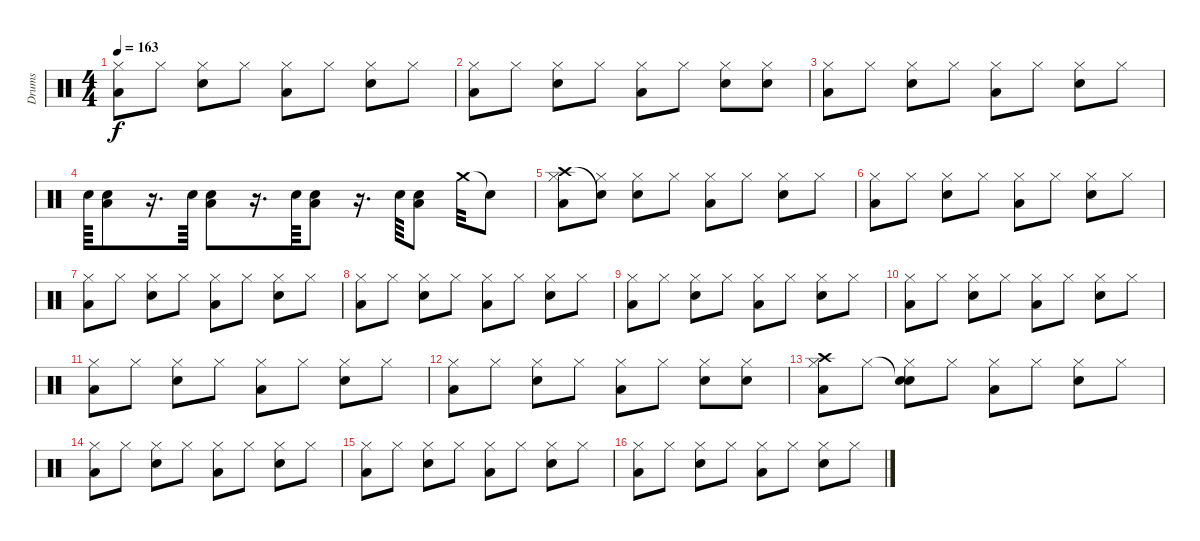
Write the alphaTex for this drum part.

\track ("Drums" "Drums") {instrument percussion}
\staff {score}
\articulation defaults
\ts (4 4)
\tempo 163
\clef neutral
\ks c
("Low Tom (hit)" "Hi-Hat (closed)").8{dy f} "Hi-Hat (closed)".8 ("Snare (hit) 2" "Hi-Hat (closed)").8 "Hi-Hat (closed)".8 ("Low Tom (hit)" "Hi-Hat (closed)").8 "Hi-Hat (closed)".8 ("Snare (hit) 2" "Hi-Hat (closed)").8 "Hi-Hat (closed)".8 |
("Low Tom (hit)" "Hi-Hat (closed)").8 "Hi-Hat (closed)".8 ("Snare (hit) 2" "Hi-Hat (closed)").8 "Hi-Hat (closed)".8 ("Low Tom (hit)" "Hi-Hat (closed)").8 "Hi-Hat (closed)".8 ("Snare (hit) 2" "Hi-Hat (closed)").8 ("Snare (hit) 2" "Hi-Hat (closed)").8 |
("Low Tom (hit)" "Hi-Hat (closed)").8 "Hi-Hat (closed)".8 ("Snare (hit) 2" "Hi-Hat (closed)").8 "Hi-Hat (closed)".8 ("Low Tom (hit)" "Hi-Hat (closed)").8 "Hi-Hat (closed)".8 ("Snare (hit) 2" "Hi-Hat (closed)").8 "Hi-Hat (closed)".8 |
"Snare (hit) 2".64 ("Snare (hit) 2" "Low Tom (hit)").8 r.16{d} "Snare (hit) 2".64 ("Snare (hit) 2" "Low Tom (hit)").8 r.16{d} "Snare (hit) 2".64 ("Snare (hit) 2" "Low Tom (hit)").8 r.16{d} "Snare (hit) 2".64 ("Snare (hit) 2" "Low Tom (hit)").8 "Crash medium (hit)".32 "Snare (hit)"{t}.8 |
("Crash high (hit)" "Low Tom (hit)" "Hi-Hat (closed)").8 ("Snare (hit)"{t} "Hi-Hat (closed)").8 ("Snare (hit) 2" "Hi-Hat (closed)").8 "Hi-Hat (closed)".8 ("Low Tom (hit)" "Hi-Hat (closed)").8 "Hi-Hat (closed)".8 ("Snare (hit) 2" "Hi-Hat (closed)").8 "Hi-Hat (closed)".8 |
("Low Tom (hit)" "Hi-Hat (closed)").8 "Hi-Hat (closed)".8 ("Snare (hit) 2" "Hi-Hat (closed)").8 "Hi-Hat (closed)".8 ("Low Tom (hit)" "Hi-Hat (closed)").8 "Hi-Hat (closed)".8 ("Snare (hit) 2" "Hi-Hat (closed)").8 "Hi-Hat (closed)".8 |
("Low Tom (hit)" "Hi-Hat (closed)").8 "Hi-Hat (closed)".8 ("Snare (hit) 2" "Hi-Hat (closed)").8 "Hi-Hat (closed)".8 ("Low Tom (hit)" "Hi-Hat (closed)").8 "Hi-Hat (closed)".8 ("Snare (hit) 2" "Hi-Hat (closed)").8 "Hi-Hat (closed)".8 |
("Low Tom (hit)" "Hi-Hat (closed)").8 "Hi-Hat (closed)".8 ("Snare (hit) 2" "Hi-Hat (closed)").8 "Hi-Hat (closed)".8 ("Low Tom (hit)" "Hi-Hat (closed)").8 "Hi-Hat (closed)".8 ("Snare (hit) 2" "Hi-Hat (closed)").8 "Hi-Hat (closed)".8 |
("Low Tom (hit)" "Hi-Hat (closed)").8 "Hi-Hat (closed)".8 ("Snare (hit) 2" "Hi-Hat (closed)").8 "Hi-Hat (closed)".8 ("Low Tom (hit)" "Hi-Hat (closed)").8 "Hi-Hat (closed)".8 ("Snare (hit) 2" "Hi-Hat (closed)").8 "Hi-Hat (closed)".8 |
("Low Tom (hit)" "Hi-Hat (closed)").8 "Hi-Hat (closed)".8 ("Snare (hit) 2" "Hi-Hat (closed)").8 "Hi-Hat (closed)".8 ("Low Tom (hit)" "Hi-Hat (closed)").8 "Hi-Hat (closed)".8 ("Snare (hit) 2" "Hi-Hat (closed)").8 "Hi-Hat (closed)".8 |
("Low Tom (hit)" "Hi-Hat (closed)").8 "Hi-Hat (closed)".8 ("Snare (hit) 2" "Hi-Hat (closed)").8 "Hi-Hat (closed)".8 ("Low Tom (hit)" "Hi-Hat (closed)").8 "Hi-Hat (closed)".8 ("Snare (hit) 2" "Hi-Hat (closed)").8 "Hi-Hat (closed)".8 |
("Low Tom (hit)" "Hi-Hat (closed)").8 "Hi-Hat (closed)".8 ("Snare (hit) 2" "Hi-Hat (closed)").8 "Hi-Hat (closed)".8 ("Low Tom (hit)" "Hi-Hat (closed)").8 "Hi-Hat (closed)".8 ("Snare (hit) 2" "Hi-Hat (closed)").8 ("Snare (hit) 2" "Hi-Hat (closed)").8 |
("Crash high (hit)" "Low Tom (hit)" "Hi-Hat (closed)").8 "Hi-Hat (closed)".8 ("Snare (hit)"{t} "Snare (hit) 2" "Hi-Hat (closed)").8 "Hi-Hat (closed)".8 ("Low Tom (hit)" "Hi-Hat (closed)").8 "Hi-Hat (closed)".8 ("Snare (hit) 2" "Hi-Hat (closed)").8 "Hi-Hat (closed)".8 |
("Low Tom (hit)" "Hi-Hat (closed)").8 "Hi-Hat (closed)".8 ("Snare (hit) 2" "Hi-Hat (closed)").8 "Hi-Hat (closed)".8 ("Low Tom (hit)" "Hi-Hat (closed)").8 "Hi-Hat (closed)".8 ("Snare (hit) 2" "Hi-Hat (closed)").8 "Hi-Hat (closed)".8 |
("Low Tom (hit)" "Hi-Hat (closed)").8 "Hi-Hat (closed)".8 ("Snare (hit) 2" "Hi-Hat (closed)").8 "Hi-Hat (closed)".8 ("Low Tom (hit)" "Hi-Hat (closed)").8 "Hi-Hat (closed)".8 ("Snare (hit) 2" "Hi-Hat (closed)").8 "Hi-Hat (closed)".8 |
("Low Tom (hit)" "Hi-Hat (closed)").8 "Hi-Hat (closed)".8 ("Snare (hit) 2" "Hi-Hat (closed)").8 "Hi-Hat (closed)".8 ("Low Tom (hit)" "Hi-Hat (closed)").8 "Hi-Hat (closed)".8 ("Snare (hit) 2" "Hi-Hat (closed)").8 "Hi-Hat (closed)".8
